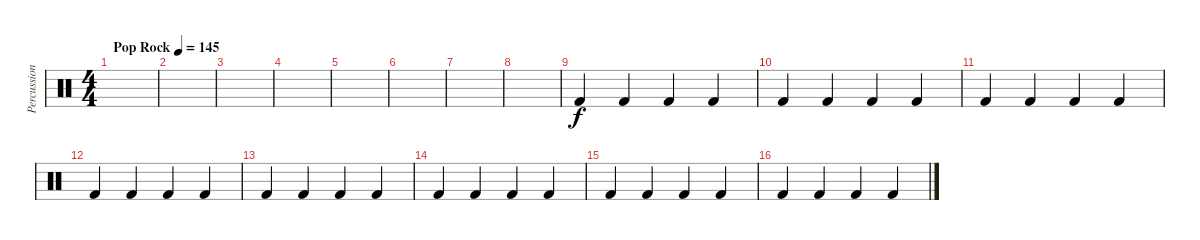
\track ("Percussion" "Percussion") {instrument percussion bank 1}
\staff {score}
\articulation defaults
\ts (4 4)
\tempo (145 "Pop Rock")
\clef neutral
\ks c
|
|
|
|
|
|
|
|
"Kick (hit) 2".4 "Kick (hit) 2".4 "Kick (hit) 2".4 "Kick (hit) 2".4 |
"Kick (hit) 2".4 "Kick (hit) 2".4 "Kick (hit) 2".4 "Kick (hit) 2".4 |
"Kick (hit) 2".4 "Kick (hit) 2".4 "Kick (hit) 2".4 "Kick (hit) 2".4 |
"Kick (hit) 2".4 "Kick (hit) 2".4 "Kick (hit) 2".4 "Kick (hit) 2".4 |
"Kick (hit) 2".4 "Kick (hit) 2".4 "Kick (hit) 2".4 "Kick (hit) 2".4 |
"Kick (hit) 2".4 "Kick (hit) 2".4 "Kick (hit) 2".4 "Kick (hit) 2".4 |
"Kick (hit) 2".4 "Kick (hit) 2".4 "Kick (hit) 2".4 "Kick (hit) 2".4 |
"Kick (hit) 2".4 "Kick (hit) 2".4 "Kick (hit) 2".4 "Kick (hit) 2".4
